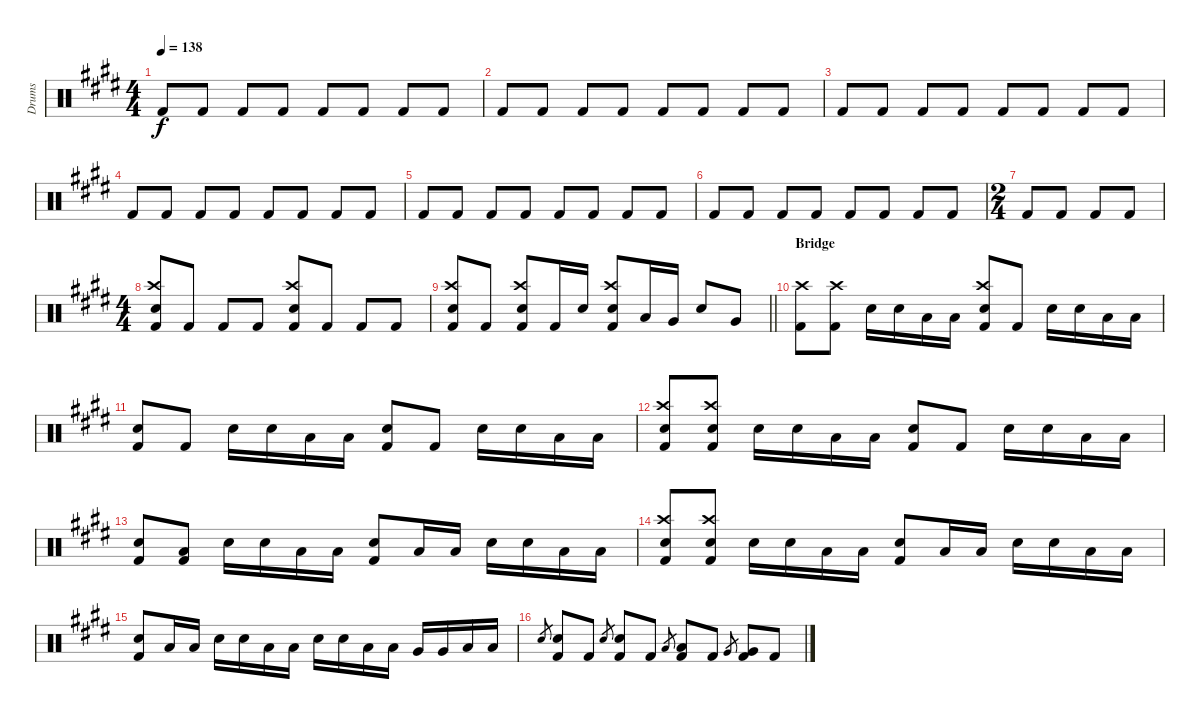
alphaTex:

\track ("Drums" "Drums") {instrument percussion}
\staff {score}
\articulation defaults
\ts (4 4)
\tempo 138
\clef neutral
\ks c#minor "Kick (hit) 2".8{dy f} "Kick (hit) 2".8 "Kick (hit) 2".8 "Kick (hit) 2".8 "Kick (hit) 2".8 "Kick (hit) 2".8 "Kick (hit) 2".8 "Kick (hit) 2".8
|
"Kick (hit) 2".8 "Kick (hit) 2".8 "Kick (hit) 2".8 "Kick (hit) 2".8 "Kick (hit) 2".8 "Kick (hit) 2".8 "Kick (hit) 2".8 "Kick (hit) 2".8 |
"Kick (hit) 2".8 "Kick (hit) 2".8 "Kick (hit) 2".8 "Kick (hit) 2".8 "Kick (hit) 2".8 "Kick (hit) 2".8 "Kick (hit) 2".8 "Kick (hit) 2".8 |
"Kick (hit) 2".8 "Kick (hit) 2".8 "Kick (hit) 2".8 "Kick (hit) 2".8 "Kick (hit) 2".8 "Kick (hit) 2".8 "Kick (hit) 2".8 "Kick (hit) 2".8 |
"Kick (hit) 2".8 "Kick (hit) 2".8 "Kick (hit) 2".8 "Kick (hit) 2".8 "Kick (hit) 2".8 "Kick (hit) 2".8 "Kick (hit) 2".8 "Kick (hit) 2".8 |
"Kick (hit) 2".8 "Kick (hit) 2".8 "Kick (hit) 2".8 "Kick (hit) 2".8 "Kick (hit) 2".8 "Kick (hit) 2".8 "Kick (hit) 2".8 "Kick (hit) 2".8 |
\ts (2 4)
"Kick (hit) 2".8 "Kick (hit) 2".8 "Kick (hit) 2".8 "Kick (hit) 2".8 |
\ts (4 4)
("Crash high (hit)" "Snare (hit) 2" "Kick (hit) 2").8 "Kick (hit) 2".8 "Kick (hit) 2".8 "Kick (hit) 2".8 ("Crash high (hit)" "Snare (hit) 2" "Kick (hit) 2").8 "Kick (hit) 2".8 "Kick (hit) 2".8 "Kick (hit) 2".8 |
\barLineRight lightlight
("Crash high (hit)" "Snare (hit) 2" "Kick (hit) 2").8 "Kick (hit) 2".8 ("Crash high (hit)" "Snare (hit) 2" "Kick (hit) 2").8 "Kick (hit) 2".16 "Snare (hit) 2".16 ("Crash high (hit)" "Snare (hit) 2" "Kick (hit) 2").8 "Low Tom (hit)".16 "Very Low Tom (hit)".16 "Snare (hit) 2".8 "Very Low Tom (hit)".8 |
\section ("" "Bridge")
\ks e
("Crash high (hit)" "Kick (hit) 2").8 ("Crash high (hit)" "Kick (hit) 2").8 "Snare (hit) 2".16 "Snare (hit) 2".16 "Low Tom (hit)".16 "Low Tom (hit)".16 ("Crash high (hit)" "Snare (hit) 2" "Kick (hit) 2").8 "Kick (hit) 2".8 "Snare (hit) 2".16 "Snare (hit) 2".16 "Low Tom (hit)".16 "Low Tom (hit)".16 |
\ks c#minor
("Snare (hit) 2" "Kick (hit) 2").8 "Kick (hit) 2".8 "Snare (hit) 2".16 "Snare (hit) 2".16 "Low Tom (hit)".16 "Low Tom (hit)".16 ("Snare (hit) 2" "Kick (hit) 2").8 "Kick (hit) 2".8 "Snare (hit) 2".16 "Snare (hit) 2".16 "Low Tom (hit)".16 "Low Tom (hit)".16 |
("Crash high (hit)" "Snare (hit) 2" "Kick (hit) 2").8 ("Crash high (hit)" "Snare (hit) 2" "Kick (hit) 2").8 "Snare (hit) 2".16 "Snare (hit) 2".16 "Low Tom (hit)".16 "Low Tom (hit)".16 ("Snare (hit) 2" "Kick (hit) 2").8 "Kick (hit) 2".8 "Snare (hit) 2".16 "Snare (hit) 2".16 "Low Tom (hit)".16 "Low Tom (hit)".16 |
("Snare (hit) 2" "Kick (hit) 2").8 ("Low Tom (hit)" "Kick (hit) 2").8 "Snare (hit) 2".16 "Snare (hit) 2".16 "Low Tom (hit)".16 "Low Tom (hit)".16 ("Snare (hit) 2" "Kick (hit) 2").8 "Low Tom (hit)".16 "Low Tom (hit)".16 "Snare (hit) 2".16 "Snare (hit) 2".16 "Low Tom (hit)".16 "Low Tom (hit)".16 |
\ks e
("Crash high (hit)" "Snare (hit) 2" "Kick (hit) 2").8 ("Crash high (hit)" "Snare (hit) 2" "Kick (hit) 2").8 "Snare (hit) 2".16 "Snare (hit) 2".16 "Low Tom (hit)".16 "Low Tom (hit)".16 ("Snare (hit) 2" "Kick (hit) 2").8 "Low Tom (hit)".16 "Low Tom (hit)".16 "Snare (hit) 2".16 "Snare (hit) 2".16 "Low Tom (hit)".16 "Low Tom (hit)".16 |
\ks c#minor
("Snare (hit) 2" "Kick (hit) 2").8 "Low Tom (hit)".16 "Low Tom (hit)".16 "Snare (hit) 2".16 "Snare (hit) 2".16 "Low Tom (hit)".16 "Low Tom (hit)".16 "Snare (hit) 2".16 "Snare (hit) 2".16 "Low Tom (hit)".16 "Low Tom (hit)".16 "Very Low Tom (hit)".16 "Very Low Tom (hit)".16 "Low Tom (hit)".16 "Low Tom (hit)".16 |
"Snare (hit) 2".8{gr} ("Snare (hit) 2" "Kick (hit) 2").8 "Kick (hit) 2".8 "Snare (hit) 2".8{gr} ("Snare (hit) 2" "Kick (hit) 2").8 "Kick (hit) 2".8 "Low Tom (hit)".8{gr} ("Low Tom (hit)" "Kick (hit) 2").8 "Kick (hit) 2".8 "Very Low Tom (hit)".8{gr} ("Very Low Tom (hit)" "Kick (hit) 2").8 "Kick (hit) 2".8
